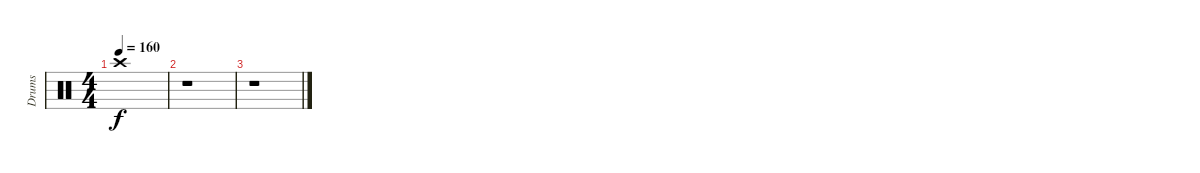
\track ("Drums" "Drums") {instrument percussion}
\staff {score}
\articulation defaults
\ts (4 4)
\tempo 160
\clef neutral
\ks c "Crash high (hit)".1{dy f}
|
r.1 |
r.1
